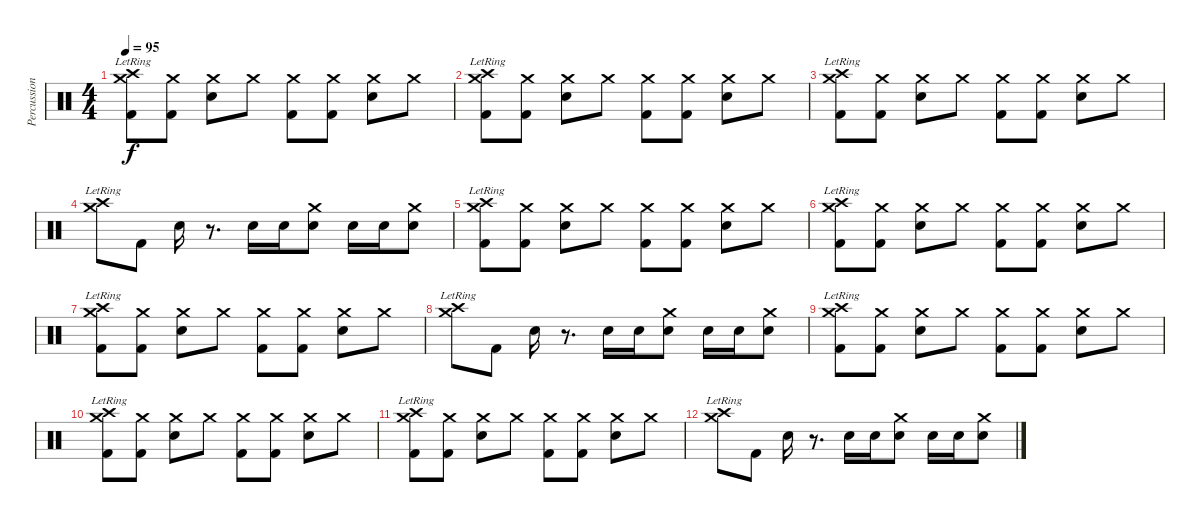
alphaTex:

\track ("Percussion" "Percussion") {instrument percussion}
\staff {score}
\articulation defaults
\ts (4 4)
\tempo 95
\clef neutral
\ks c
("Crash high (hit)"{lr} "Crash medium (hit)" "Kick (hit) 2").8{dy f} ("Crash medium (hit)" "Kick (hit) 2").8 ("Crash medium (hit)" "Electric Snare (hit)").8 "Crash medium (hit)".8 ("Crash medium (hit)" "Kick (hit) 2").8 ("Crash medium (hit)" "Kick (hit) 2").8 ("Crash medium (hit)" "Electric Snare (hit)").8 "Crash medium (hit)".8 |
("Crash high (hit)"{lr} "Crash medium (hit)" "Kick (hit) 2").8 ("Crash medium (hit)" "Kick (hit) 2").8 ("Crash medium (hit)" "Electric Snare (hit)").8 "Crash medium (hit)".8 ("Crash medium (hit)" "Kick (hit) 2").8 ("Crash medium (hit)" "Kick (hit) 2").8 ("Crash medium (hit)" "Electric Snare (hit)").8 "Crash medium (hit)".8 |
("Crash high (hit)"{lr} "Crash medium (hit)" "Kick (hit) 2").8 ("Crash medium (hit)" "Kick (hit) 2").8 ("Crash medium (hit)" "Electric Snare (hit)").8 "Crash medium (hit)".8 ("Crash medium (hit)" "Kick (hit) 2").8 ("Crash medium (hit)" "Kick (hit) 2").8 ("Crash medium (hit)" "Electric Snare (hit)").8 "Crash medium (hit)".8 |
("Crash high (hit)"{lr} "Crash medium (hit)"{lr}).8 "Kick (hit) 2".8 "Electric Snare (hit)".16 r.8{d} "Electric Snare (hit)".16 "Electric Snare (hit)".16 ("Crash medium (hit)" "Electric Snare (hit)").8 "Electric Snare (hit)".16 "Electric Snare (hit)".16 ("Crash medium (hit)" "Electric Snare (hit)").8 |
("Crash high (hit)"{lr} "Crash medium (hit)" "Kick (hit) 2").8 ("Crash medium (hit)" "Kick (hit) 2").8 ("Crash medium (hit)" "Electric Snare (hit)").8 "Crash medium (hit)".8 ("Crash medium (hit)" "Kick (hit) 2").8 ("Crash medium (hit)" "Kick (hit) 2").8 ("Crash medium (hit)" "Electric Snare (hit)").8 "Crash medium (hit)".8 |
("Crash high (hit)"{lr} "Crash medium (hit)" "Kick (hit) 2").8 ("Crash medium (hit)" "Kick (hit) 2").8 ("Crash medium (hit)" "Electric Snare (hit)").8 "Crash medium (hit)".8 ("Crash medium (hit)" "Kick (hit) 2").8 ("Crash medium (hit)" "Kick (hit) 2").8 ("Crash medium (hit)" "Electric Snare (hit)").8 "Crash medium (hit)".8 |
("Crash high (hit)"{lr} "Crash medium (hit)" "Kick (hit) 2").8 ("Crash medium (hit)" "Kick (hit) 2").8 ("Crash medium (hit)" "Electric Snare (hit)").8 "Crash medium (hit)".8 ("Crash medium (hit)" "Kick (hit) 2").8 ("Crash medium (hit)" "Kick (hit) 2").8 ("Crash medium (hit)" "Electric Snare (hit)").8 "Crash medium (hit)".8 |
("Crash high (hit)"{lr} "Crash medium (hit)"{lr}).8 "Kick (hit) 2".8 "Electric Snare (hit)".16 r.8{d} "Electric Snare (hit)".16 "Electric Snare (hit)".16 ("Crash medium (hit)" "Electric Snare (hit)").8 "Electric Snare (hit)".16 "Electric Snare (hit)".16 ("Crash medium (hit)" "Electric Snare (hit)").8 |
("Crash high (hit)"{lr} "Crash medium (hit)" "Kick (hit) 2").8 ("Crash medium (hit)" "Kick (hit) 2").8 ("Crash medium (hit)" "Electric Snare (hit)").8 "Crash medium (hit)".8 ("Crash medium (hit)" "Kick (hit) 2").8 ("Crash medium (hit)" "Kick (hit) 2").8 ("Crash medium (hit)" "Electric Snare (hit)").8 "Crash medium (hit)".8 |
("Crash high (hit)"{lr} "Crash medium (hit)" "Kick (hit) 2").8 ("Crash medium (hit)" "Kick (hit) 2").8 ("Crash medium (hit)" "Electric Snare (hit)").8 "Crash medium (hit)".8 ("Crash medium (hit)" "Kick (hit) 2").8 ("Crash medium (hit)" "Kick (hit) 2").8 ("Crash medium (hit)" "Electric Snare (hit)").8 "Crash medium (hit)".8 |
("Crash high (hit)"{lr} "Crash medium (hit)" "Kick (hit) 2").8 ("Crash medium (hit)" "Kick (hit) 2").8 ("Crash medium (hit)" "Electric Snare (hit)").8 "Crash medium (hit)".8 ("Crash medium (hit)" "Kick (hit) 2").8 ("Crash medium (hit)" "Kick (hit) 2").8 ("Crash medium (hit)" "Electric Snare (hit)").8 "Crash medium (hit)".8 |
("Crash high (hit)"{lr} "Crash medium (hit)"{lr}).8 "Kick (hit) 2".8 "Electric Snare (hit)".16 r.8{d} "Electric Snare (hit)".16 "Electric Snare (hit)".16 ("Crash medium (hit)" "Electric Snare (hit)").8 "Electric Snare (hit)".16 "Electric Snare (hit)".16 ("Crash medium (hit)" "Electric Snare (hit)").8
